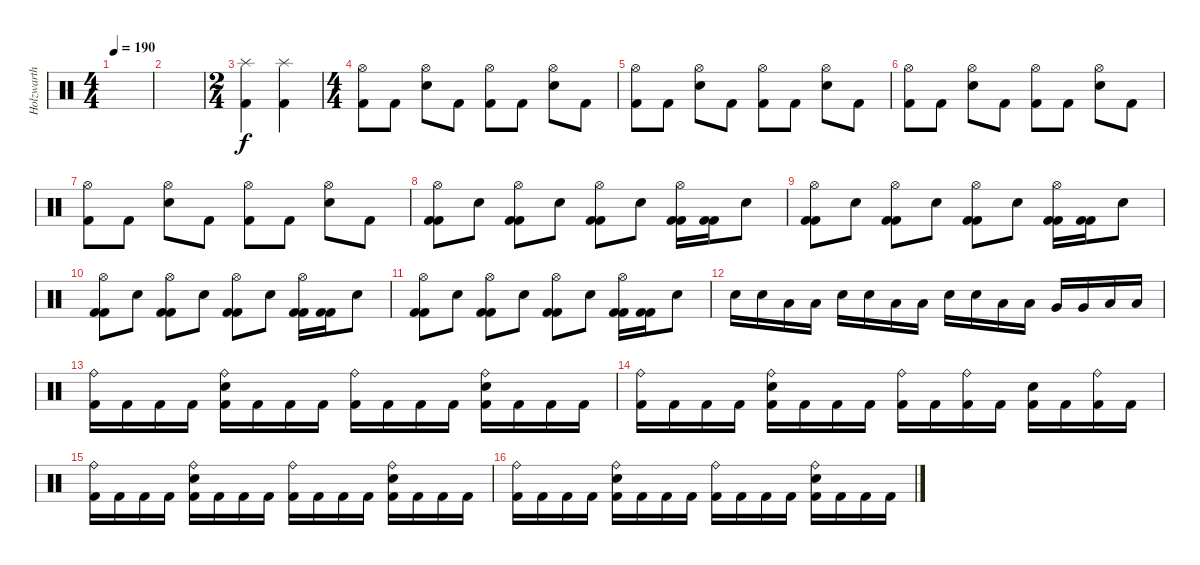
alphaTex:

\track ("Holzwarth" "Holzwarth") {instrument percussion}
\staff {score}
\articulation defaults
\ts (4 4)
\tempo 190
\clef neutral
\ks c
|
|
\ts (2 4)
("Splash (hit)" "Kick (hit) 2").4 ("Splash (hit)" "Kick (hit) 2").4 |
\ts (4 4)
("Hi-Hat (open)" "Kick (hit) 2").8 "Kick (hit) 2".8 ("Hi-Hat (open)" "Snare (hit) 2").8 "Kick (hit) 2".8 ("Hi-Hat (open)" "Kick (hit) 2").8 "Kick (hit) 2".8 ("Hi-Hat (open)" "Snare (hit) 2").8 "Kick (hit) 2".8 |
("Hi-Hat (open)" "Kick (hit) 2").8 "Kick (hit) 2".8 ("Hi-Hat (open)" "Snare (hit) 2").8 "Kick (hit) 2".8 ("Hi-Hat (open)" "Kick (hit) 2").8 "Kick (hit) 2".8 ("Hi-Hat (open)" "Snare (hit) 2").8 "Kick (hit) 2".8 |
("Hi-Hat (open)" "Kick (hit) 2").8 "Kick (hit) 2".8 ("Hi-Hat (open)" "Snare (hit) 2").8 "Kick (hit) 2".8 ("Hi-Hat (open)" "Kick (hit) 2").8 "Kick (hit) 2".8 ("Hi-Hat (open)" "Snare (hit) 2").8 "Kick (hit) 2".8 |
("Hi-Hat (open)" "Kick (hit) 2").8 "Kick (hit) 2".8 ("Hi-Hat (open)" "Snare (hit) 2").8 "Kick (hit) 2".8 ("Hi-Hat (open)" "Kick (hit) 2").8 "Kick (hit) 2".8 ("Hi-Hat (open)" "Snare (hit) 2").8 "Kick (hit) 2".8 |
("Hi-Hat (open)" "Kick (hit) 2" "Kick (hit) 2").8 "Snare (hit) 2".8 ("Hi-Hat (open)" "Kick (hit) 2" "Kick (hit) 2").8 "Snare (hit) 2".8 ("Hi-Hat (open)" "Kick (hit) 2" "Kick (hit) 2").8 "Snare (hit) 2".8 ("Hi-Hat (open)" "Kick (hit) 2" "Kick (hit) 2").16 ("Kick (hit) 2" "Kick (hit) 2").16 "Snare (hit) 2".8 |
("Hi-Hat (open)" "Kick (hit) 2" "Kick (hit) 2").8 "Snare (hit) 2".8 ("Hi-Hat (open)" "Kick (hit) 2" "Kick (hit) 2").8 "Snare (hit) 2".8 ("Hi-Hat (open)" "Kick (hit) 2" "Kick (hit) 2").8 "Snare (hit) 2".8 ("Hi-Hat (open)" "Kick (hit) 2" "Kick (hit) 2").16 ("Kick (hit) 2" "Kick (hit) 2").16 "Snare (hit) 2".8 |
("Hi-Hat (open)" "Kick (hit) 2" "Kick (hit) 2").8 "Snare (hit) 2".8 ("Hi-Hat (open)" "Kick (hit) 2" "Kick (hit) 2").8 "Snare (hit) 2".8 ("Hi-Hat (open)" "Kick (hit) 2" "Kick (hit) 2").8 "Snare (hit) 2".8 ("Hi-Hat (open)" "Kick (hit) 2" "Kick (hit) 2").16 ("Kick (hit) 2" "Kick (hit) 2").16 "Snare (hit) 2".8 |
("Hi-Hat (open)" "Kick (hit) 2" "Kick (hit) 2").8 "Snare (hit) 2".8 ("Hi-Hat (open)" "Kick (hit) 2" "Kick (hit) 2").8 "Snare (hit) 2".8 ("Hi-Hat (open)" "Kick (hit) 2" "Kick (hit) 2").8 "Snare (hit) 2".8 ("Hi-Hat (open)" "Kick (hit) 2" "Kick (hit) 2").16 ("Kick (hit) 2" "Kick (hit) 2").16 "Snare (hit) 2".8 |
"Snare (hit) 2".16 "Snare (hit) 2".16 "Low Tom (hit)".16 "Low Tom (hit)".16 "Snare (hit) 2".16 "Snare (hit) 2".16 "Low Tom (hit)".16 "Low Tom (hit)".16 "Snare (hit) 2".16 "Snare (hit) 2".16 "Low Tom (hit)".16 "Low Tom (hit)".16 "Very Low Tom (hit)".16 "Very Low Tom (hit)".16 "Low Floor Tom (hit)".16 "Low Floor Tom (hit)".16 |
("Ride (bell)" "Kick (hit) 2").16 "Kick (hit) 2".16 "Kick (hit) 2".16 "Kick (hit) 2".16 ("Ride (bell)" "Snare (hit) 2" "Kick (hit) 2").16 "Kick (hit) 2".16 "Kick (hit) 2".16 "Kick (hit) 2".16 ("Ride (bell)" "Kick (hit) 2").16 "Kick (hit) 2".16 "Kick (hit) 2".16 "Kick (hit) 2".16 ("Ride (bell)" "Snare (hit) 2" "Kick (hit) 2").16 "Kick (hit) 2".16 "Kick (hit) 2".16 "Kick (hit) 2".16 |
("Ride (bell)" "Kick (hit) 2").16 "Kick (hit) 2".16 "Kick (hit) 2".16 "Kick (hit) 2".16 ("Ride (bell)" "Snare (hit) 2" "Kick (hit) 2").16 "Kick (hit) 2".16 "Kick (hit) 2".16 "Kick (hit) 2".16 ("Ride (bell)" "Kick (hit) 2").16 "Kick (hit) 2".16 ("Ride (bell)" "Kick (hit) 2").16 "Kick (hit) 2".16 ("Snare (hit) 2" "Kick (hit) 2").16 "Kick (hit) 2".16 ("Ride (bell)" "Kick (hit) 2").16 "Kick (hit) 2".16 |
("Ride (bell)" "Kick (hit) 2").16 "Kick (hit) 2".16 "Kick (hit) 2".16 "Kick (hit) 2".16 ("Ride (bell)" "Snare (hit) 2" "Kick (hit) 2").16 "Kick (hit) 2".16 "Kick (hit) 2".16 "Kick (hit) 2".16 ("Ride (bell)" "Kick (hit) 2").16 "Kick (hit) 2".16 "Kick (hit) 2".16 "Kick (hit) 2".16 ("Ride (bell)" "Snare (hit) 2" "Kick (hit) 2").16 "Kick (hit) 2".16 "Kick (hit) 2".16 "Kick (hit) 2".16 |
("Ride (bell)" "Kick (hit) 2").16 "Kick (hit) 2".16 "Kick (hit) 2".16 "Kick (hit) 2".16 ("Ride (bell)" "Snare (hit) 2" "Kick (hit) 2").16 "Kick (hit) 2".16 "Kick (hit) 2".16 "Kick (hit) 2".16 ("Ride (bell)" "Kick (hit) 2").16 "Kick (hit) 2".16 "Kick (hit) 2".16 "Kick (hit) 2".16 ("Ride (bell)" "Snare (hit) 2" "Kick (hit) 2").16 "Kick (hit) 2".16 "Kick (hit) 2".16 "Kick (hit) 2".16
